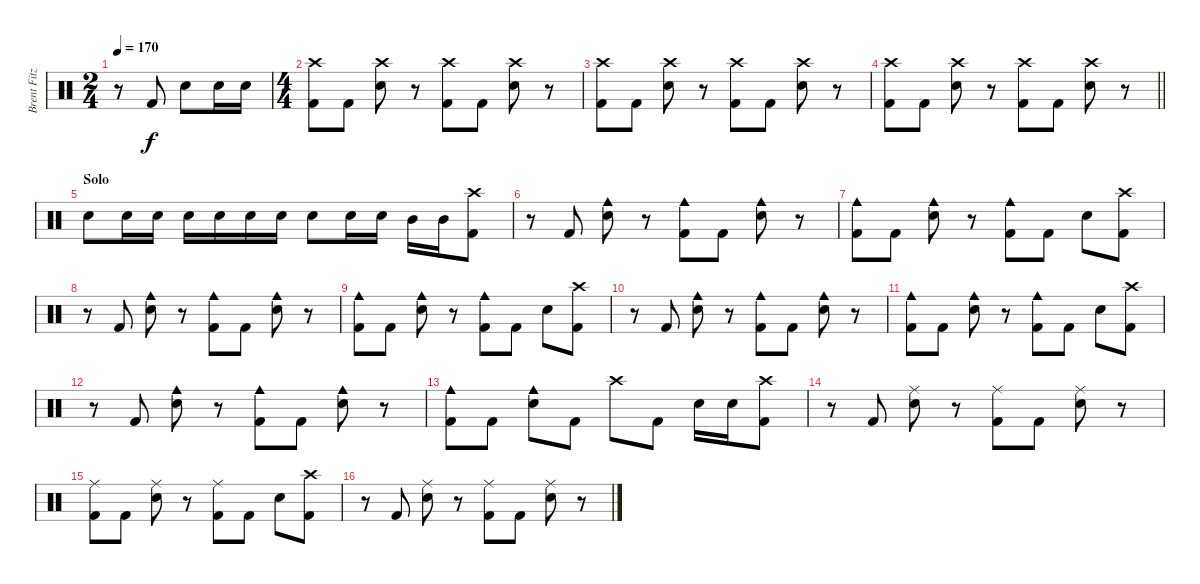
\track ("Brent Fitz" "Brent Fitz") {instrument percussion}
\staff {score}
\articulation defaults
\ts (2 4)
\tempo 170
\clef neutral
\ks c
r.8{dy f} "Kick (hit) 2".8 "Electric Snare (hit)".8 "Electric Snare (hit)".16 "Electric Snare (hit)".16 |
\ts (4 4)
("Crash high (hit)" "Kick (hit) 2").8 "Kick (hit) 2".8 ("Crash high (hit)" "Electric Snare (hit)").8 r.8 ("Crash high (hit)" "Kick (hit) 2").8 "Kick (hit) 2".8 ("Crash high (hit)" "Electric Snare (hit)").8 r.8 |
("Crash high (hit)" "Kick (hit) 2").8 "Kick (hit) 2".8 ("Crash high (hit)" "Electric Snare (hit)").8 r.8 ("Crash high (hit)" "Kick (hit) 2").8 "Kick (hit) 2".8 ("Crash high (hit)" "Electric Snare (hit)").8 r.8 |
\barLineRight lightlight
("Crash high (hit)" "Kick (hit) 2").8 "Kick (hit) 2".8 ("Crash high (hit)" "Electric Snare (hit)").8 r.8 ("Crash high (hit)" "Kick (hit) 2").8 "Kick (hit) 2".8 ("Crash high (hit)" "Electric Snare (hit)").8 r.8 |
\section ("" "Solo")
"Electric Snare (hit)".8 "Electric Snare (hit)".16 "Electric Snare (hit)".16 "Electric Snare (hit)".16 "Electric Snare (hit)".16 "Electric Snare (hit)".16 "Electric Snare (hit)".16 "Electric Snare (hit)".8 "Electric Snare (hit)".16 "Electric Snare (hit)".16 "Mid Tom (hit)".16 "Mid Tom (hit)".16 ("Crash high (hit)" "Kick (hit) 2").8 |
r.8 "Kick (hit) 2".8 ("Cowbell medium (hit)" "Electric Snare (hit)").8 r.8 ("Cowbell medium (hit)" "Kick (hit) 2").8 "Kick (hit) 2".8 ("Cowbell medium (hit)" "Electric Snare (hit)").8 r.8 |
("Cowbell medium (hit)" "Kick (hit) 2").8 "Kick (hit) 2".8 ("Cowbell medium (hit)" "Electric Snare (hit)").8 r.8 ("Cowbell medium (hit)" "Kick (hit) 2").8 "Kick (hit) 2".8 "Electric Snare (hit)".8 ("Crash high (hit)" "Kick (hit) 2").8 |
r.8 "Kick (hit) 2".8 ("Cowbell medium (hit)" "Electric Snare (hit)").8 r.8 ("Cowbell medium (hit)" "Kick (hit) 2").8 "Kick (hit) 2".8 ("Cowbell medium (hit)" "Electric Snare (hit)").8 r.8 |
("Cowbell medium (hit)" "Kick (hit) 2").8 "Kick (hit) 2".8 ("Cowbell medium (hit)" "Electric Snare (hit)").8 r.8 ("Cowbell medium (hit)" "Kick (hit) 2").8 "Kick (hit) 2".8 "Electric Snare (hit)".8 ("Crash high (hit)" "Kick (hit) 2").8 |
r.8 "Kick (hit) 2".8 ("Cowbell medium (hit)" "Electric Snare (hit)").8 r.8 ("Cowbell medium (hit)" "Kick (hit) 2").8 "Kick (hit) 2".8 ("Cowbell medium (hit)" "Electric Snare (hit)").8 r.8 |
("Cowbell medium (hit)" "Kick (hit) 2").8 "Kick (hit) 2".8 ("Cowbell medium (hit)" "Electric Snare (hit)").8 r.8 ("Cowbell medium (hit)" "Kick (hit) 2").8 "Kick (hit) 2".8 "Electric Snare (hit)".8 ("Crash high (hit)" "Kick (hit) 2").8 |
r.8 "Kick (hit) 2".8 ("Cowbell medium (hit)" "Electric Snare (hit)").8 r.8 ("Cowbell medium (hit)" "Kick (hit) 2").8 "Kick (hit) 2".8 ("Cowbell medium (hit)" "Electric Snare (hit)").8 r.8 |
("Cowbell medium (hit)" "Kick (hit) 2").8 "Kick (hit) 2".8 ("Cowbell medium (hit)" "Electric Snare (hit)").8 "Kick (hit) 2".8 "Crash high (hit)".8 "Kick (hit) 2".8 "Electric Snare (hit)".16 "Electric Snare (hit)".16 ("Crash high (hit)" "Kick (hit) 2").8 |
r.8 "Kick (hit) 2".8 ("Ride (middle)" "Electric Snare (hit)").8 r.8 ("Ride (middle)" "Kick (hit) 2").8 "Kick (hit) 2".8 ("Ride (middle)" "Electric Snare (hit)").8 r.8 |
("Ride (middle)" "Kick (hit) 2").8 "Kick (hit) 2".8 ("Ride (middle)" "Electric Snare (hit)").8 r.8 ("Ride (middle)" "Kick (hit) 2").8 "Kick (hit) 2".8 "Electric Snare (hit)".8 ("Crash high (hit)" "Kick (hit) 2").8 |
r.8 "Kick (hit) 2".8 ("Ride (middle)" "Electric Snare (hit)").8 r.8 ("Ride (middle)" "Kick (hit) 2").8 "Kick (hit) 2".8 ("Ride (middle)" "Electric Snare (hit)").8 r.8
